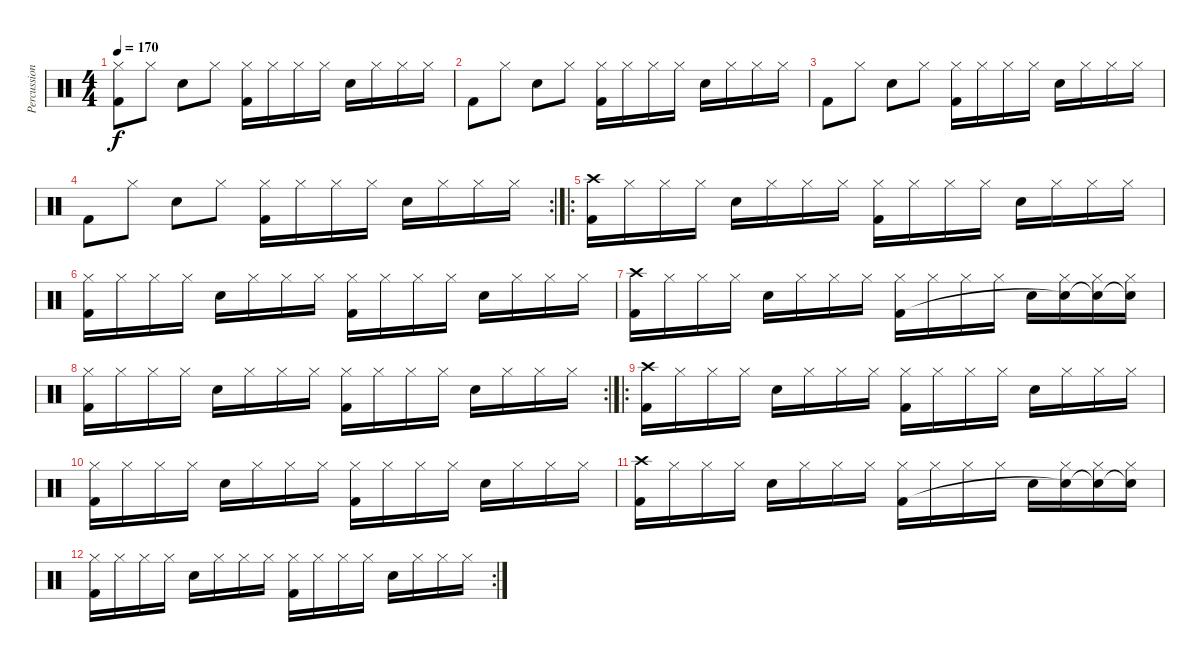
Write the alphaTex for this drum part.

\track ("Percussion" "Percussion") {instrument percussion}
\staff {score}
\articulation defaults
\ts (4 4)
\tempo 170
\clef neutral
\ks c
("Hi-Hat (closed)" "Kick (hit) 2").8{dy f} "Hi-Hat (closed)".8 "Electric Snare (hit)".8 "Hi-Hat (closed)".8 ("Hi-Hat (closed)" "Kick (hit) 2").16 "Hi-Hat (closed)".16 "Hi-Hat (closed)".16 "Hi-Hat (closed)".16 "Electric Snare (hit)".16 "Hi-Hat (closed)".16 "Hi-Hat (closed)".16 "Hi-Hat (closed)".16 |
"Kick (hit) 2".8 "Hi-Hat (closed)".8 "Electric Snare (hit)".8 "Hi-Hat (closed)".8 ("Hi-Hat (closed)" "Kick (hit) 2").16 "Hi-Hat (closed)".16 "Hi-Hat (closed)".16 "Hi-Hat (closed)".16 "Electric Snare (hit)".16 "Hi-Hat (closed)".16 "Hi-Hat (closed)".16 "Hi-Hat (closed)".16 |
"Kick (hit) 2".8 "Hi-Hat (closed)".8 "Electric Snare (hit)".8 "Hi-Hat (closed)".8 ("Hi-Hat (closed)" "Kick (hit) 2").16 "Hi-Hat (closed)".16 "Hi-Hat (closed)".16 "Hi-Hat (closed)".16 "Electric Snare (hit)".16 "Hi-Hat (closed)".16 "Hi-Hat (closed)".16 "Hi-Hat (closed)".16 |
\rc 2 "Kick (hit) 2".8 "Hi-Hat (closed)".8 "Electric Snare (hit)".8 "Hi-Hat (closed)".8
("Hi-Hat (closed)" "Kick (hit) 2").16 "Hi-Hat (closed)".16 "Hi-Hat (closed)".16 "Hi-Hat (closed)".16 "Electric Snare (hit)".16 "Hi-Hat (closed)".16 "Hi-Hat (closed)".16 "Hi-Hat (closed)".16 |
\ro
("Crash high (hit)" "Kick (hit) 2").16 "Hi-Hat (closed)".16 "Hi-Hat (closed)".16 "Hi-Hat (closed)".16 "Electric Snare (hit)".16 "Hi-Hat (closed)".16 "Hi-Hat (closed)".16 "Hi-Hat (closed)".16 ("Hi-Hat (closed)" "Kick (hit) 2").16 "Hi-Hat (closed)".16 "Hi-Hat (closed)".16 "Hi-Hat (closed)".16 "Electric Snare (hit)".16 "Hi-Hat (closed)".16 "Hi-Hat (closed)".16 "Hi-Hat (closed)".16 |
("Hi-Hat (closed)" "Kick (hit) 2").16 "Hi-Hat (closed)".16 "Hi-Hat (closed)".16 "Hi-Hat (closed)".16 "Electric Snare (hit)".16 "Hi-Hat (closed)".16 "Hi-Hat (closed)".16 "Hi-Hat (closed)".16 ("Hi-Hat (closed)" "Kick (hit) 2").16 "Hi-Hat (closed)".16 "Hi-Hat (closed)".16 "Hi-Hat (closed)".16 "Electric Snare (hit)".16 "Hi-Hat (closed)".16 "Hi-Hat (closed)".16 "Hi-Hat (closed)".16 |
("Crash high (hit)" "Kick (hit) 2").16 "Hi-Hat (closed)".16 "Hi-Hat (closed)".16 "Hi-Hat (closed)".16 "Electric Snare (hit)".16 "Hi-Hat (closed)".16 "Hi-Hat (closed)".16 "Hi-Hat (closed)".16 ("Hi-Hat (closed)" "Kick (hit) 2").16 "Hi-Hat (closed)".16 "Hi-Hat (closed)".16 "Hi-Hat (closed)".16 "Electric Snare (hit)".16 ("Hi-Hat (closed)" "Snare (hit)"{t}).16 ("Hi-Hat (closed)" "Snare (hit)"{t}).16 ("Hi-Hat (closed)" "Snare (hit)"{t}).16 |
\rc 2
("Hi-Hat (closed)" "Kick (hit) 2").16 "Hi-Hat (closed)".16 "Hi-Hat (closed)".16 "Hi-Hat (closed)".16 "Electric Snare (hit)".16 "Hi-Hat (closed)".16 "Hi-Hat (closed)".16 "Hi-Hat (closed)".16 ("Hi-Hat (closed)" "Kick (hit) 2").16 "Hi-Hat (closed)".16 "Hi-Hat (closed)".16 "Hi-Hat (closed)".16 "Electric Snare (hit)".16 "Hi-Hat (closed)".16 "Hi-Hat (closed)".16 "Hi-Hat (closed)".16 |
\ro
("Crash high (hit)" "Kick (hit) 2").16 "Hi-Hat (closed)".16 "Hi-Hat (closed)".16 "Hi-Hat (closed)".16 "Electric Snare (hit)".16 "Hi-Hat (closed)".16 "Hi-Hat (closed)".16 "Hi-Hat (closed)".16 ("Hi-Hat (closed)" "Kick (hit) 2").16 "Hi-Hat (closed)".16 "Hi-Hat (closed)".16 "Hi-Hat (closed)".16 "Electric Snare (hit)".16 "Hi-Hat (closed)".16 "Hi-Hat (closed)".16 "Hi-Hat (closed)".16 |
("Hi-Hat (closed)" "Kick (hit) 2").16 "Hi-Hat (closed)".16 "Hi-Hat (closed)".16 "Hi-Hat (closed)".16 "Electric Snare (hit)".16 "Hi-Hat (closed)".16 "Hi-Hat (closed)".16 "Hi-Hat (closed)".16 ("Hi-Hat (closed)" "Kick (hit) 2").16 "Hi-Hat (closed)".16 "Hi-Hat (closed)".16 "Hi-Hat (closed)".16 "Electric Snare (hit)".16 "Hi-Hat (closed)".16 "Hi-Hat (closed)".16 "Hi-Hat (closed)".16 |
("Crash high (hit)" "Kick (hit) 2").16 "Hi-Hat (closed)".16 "Hi-Hat (closed)".16 "Hi-Hat (closed)".16 "Electric Snare (hit)".16 "Hi-Hat (closed)".16 "Hi-Hat (closed)".16 "Hi-Hat (closed)".16 ("Hi-Hat (closed)" "Kick (hit) 2").16 "Hi-Hat (closed)".16 "Hi-Hat (closed)".16 "Hi-Hat (closed)".16 "Electric Snare (hit)".16 ("Hi-Hat (closed)" "Snare (hit)"{t}).16 ("Hi-Hat (closed)" "Snare (hit)"{t}).16 ("Hi-Hat (closed)" "Snare (hit)"{t}).16 |
\rc 2
("Hi-Hat (closed)" "Kick (hit) 2").16 "Hi-Hat (closed)".16 "Hi-Hat (closed)".16 "Hi-Hat (closed)".16 "Electric Snare (hit)".16 "Hi-Hat (closed)".16 "Hi-Hat (closed)".16 "Hi-Hat (closed)".16 ("Hi-Hat (closed)" "Kick (hit) 2").16 "Hi-Hat (closed)".16 "Hi-Hat (closed)".16 "Hi-Hat (closed)".16 "Electric Snare (hit)".16 "Hi-Hat (closed)".16 "Hi-Hat (closed)".16 "Hi-Hat (closed)".16
